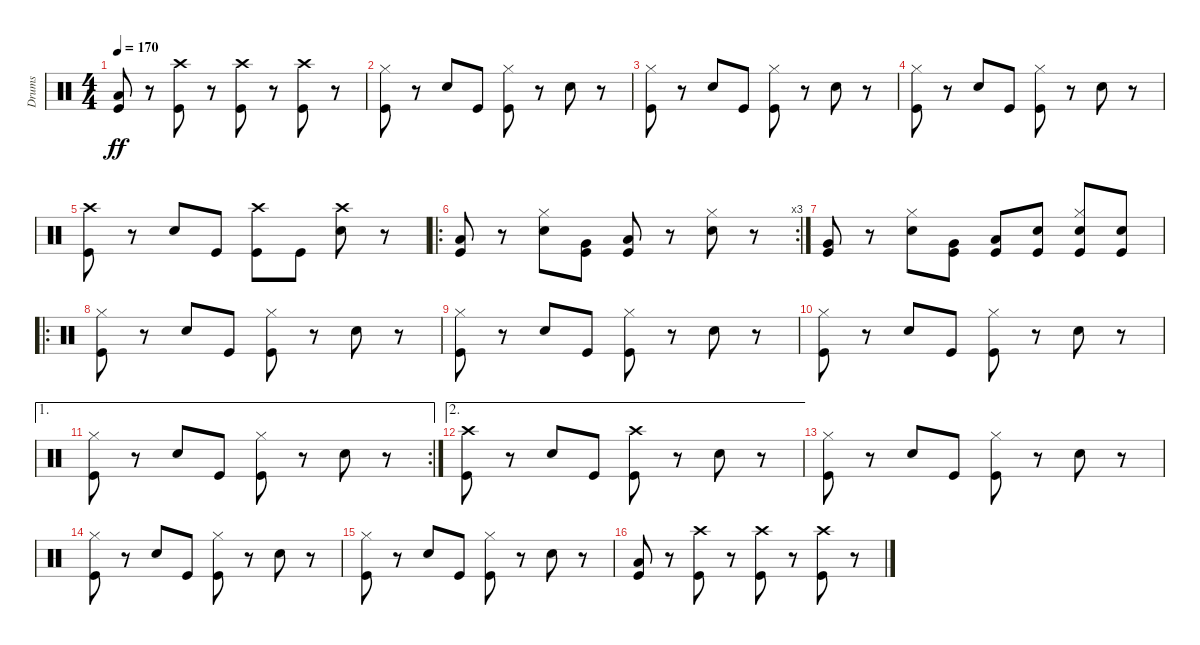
\track ("Drums" "Drums") {instrument percussion}
\staff {score}
\articulation defaults
\ts (4 4)
\tempo 170
\clef neutral
\ks c
("Low Floor Tom (hit)" "Kick (hit)").8{dy ff} r.8 ("Crash high (hit)" "Kick (hit)").8 r.8 ("Crash high (hit)" "Kick (hit)").8 r.8 ("Crash high (hit)" "Kick (hit)").8 r.8 |
("Hi-Hat (closed)" "Kick (hit)").8 r.8 "Snare (hit) 2".8 "Kick (hit)".8 ("Hi-Hat (closed)" "Kick (hit)").8 r.8 "Snare (hit) 2".8 r.8 |
("Hi-Hat (closed)" "Kick (hit)").8 r.8 "Snare (hit) 2".8 "Kick (hit)".8 ("Hi-Hat (closed)" "Kick (hit)").8 r.8 "Snare (hit) 2".8 r.8 |
("Hi-Hat (closed)" "Kick (hit)").8 r.8 "Snare (hit) 2".8 "Kick (hit)".8 ("Hi-Hat (closed)" "Kick (hit)").8 r.8 "Snare (hit) 2".8 r.8 |
("Crash high (hit)" "Kick (hit)").8 r.8 "Snare (hit) 2".8 "Kick (hit)".8 ("Crash high (hit)" "Kick (hit)").8 "Kick (hit)".8 ("Crash high (hit)" "Snare (hit) 2").8 r.8 |
\ro
\rc 3
("Low Floor Tom (hit)" "Kick (hit)").8 r.8 ("Hi-Hat (closed)" "Snare (hit) 2").8 ("Very Low Tom (hit)" "Kick (hit)").8 ("Low Floor Tom (hit)" "Kick (hit)").8 r.8 ("Hi-Hat (closed)" "Snare (hit) 2").8 r.8 |
("Very Low Tom (hit)" "Kick (hit)").8 r.8 ("Hi-Hat (closed)" "Snare (hit) 2").8 ("Very Low Tom (hit)" "Kick (hit)").8 ("Low Floor Tom (hit)" "Kick (hit)").8 ("Snare (hit) 2" "Kick (hit)").8 ("Hi-Hat (closed)" "Snare (hit) 2" "Kick (hit)").8 ("Snare (hit) 2" "Kick (hit)").8 |
\ro
("Hi-Hat (closed)" "Kick (hit)").8 r.8 "Snare (hit) 2".8 "Kick (hit)".8 ("Hi-Hat (closed)" "Kick (hit)").8 r.8 "Snare (hit) 2".8 r.8 |
("Hi-Hat (closed)" "Kick (hit)").8 r.8 "Snare (hit) 2".8 "Kick (hit)".8 ("Hi-Hat (closed)" "Kick (hit)").8 r.8 "Snare (hit) 2".8 r.8 |
("Hi-Hat (closed)" "Kick (hit)").8 r.8 "Snare (hit) 2".8 "Kick (hit)".8 ("Hi-Hat (closed)" "Kick (hit)").8 r.8 "Snare (hit) 2".8 r.8 |
\ae 1
\rc 2
("Hi-Hat (closed)" "Kick (hit)").8 r.8 "Snare (hit) 2".8 "Kick (hit)".8 ("Hi-Hat (closed)" "Kick (hit)").8 r.8 "Snare (hit) 2".8 r.8 |
\ae 2
("Crash high (hit)" "Kick (hit)").8 r.8 "Snare (hit) 2".8 "Kick (hit)".8 ("Crash high (hit)" "Kick (hit)").8 r.8 "Snare (hit) 2".8 r.8 |
("Hi-Hat (closed)" "Kick (hit)").8 r.8 "Snare (hit) 2".8 "Kick (hit)".8 ("Hi-Hat (closed)" "Kick (hit)").8 r.8 "Snare (hit) 2".8 r.8 |
("Hi-Hat (closed)" "Kick (hit)").8 r.8 "Snare (hit) 2".8 "Kick (hit)".8 ("Hi-Hat (closed)" "Kick (hit)").8 r.8 "Snare (hit) 2".8 r.8 |
("Hi-Hat (closed)" "Kick (hit)").8 r.8 "Snare (hit) 2".8 "Kick (hit)".8 ("Hi-Hat (closed)" "Kick (hit)").8 r.8 "Snare (hit) 2".8 r.8 |
("Low Floor Tom (hit)" "Kick (hit)").8 r.8 ("Crash high (hit)" "Kick (hit)").8 r.8 ("Crash high (hit)" "Kick (hit)").8 r.8 ("Crash high (hit)" "Kick (hit)").8 r.8
